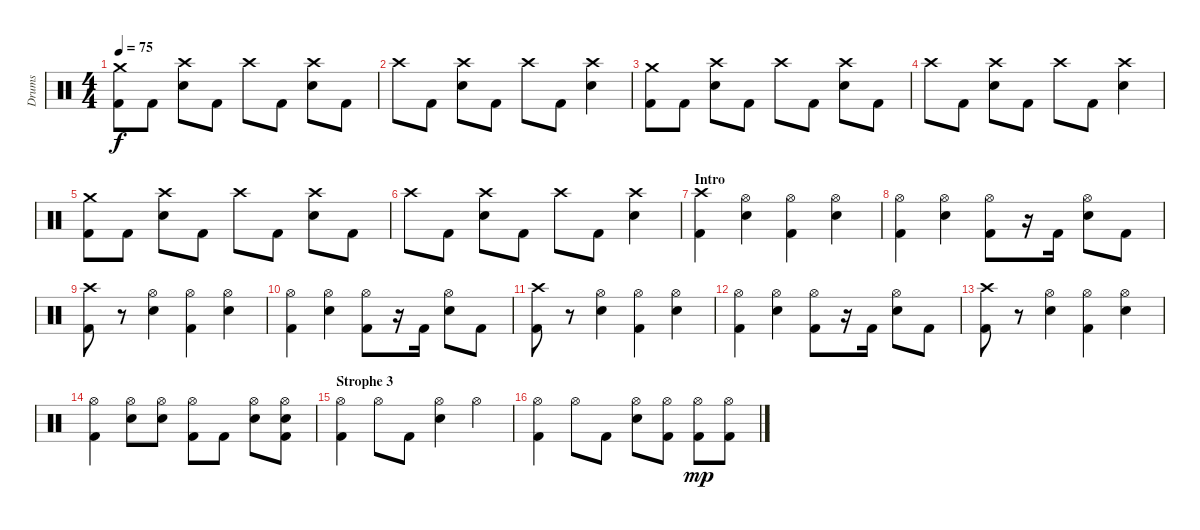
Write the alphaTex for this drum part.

\track ("Drums" "Drums") {instrument percussion}
\staff {score}
\articulation defaults
\ts (4 4)
\tempo 75
\clef neutral
\ks c
("Crash medium (hit)" "Kick (hit) 2").8{dy f} "Kick (hit) 2".8 ("Crash high (hit)" "Snare (hit) 2").8 "Kick (hit) 2".8 "Crash high (hit)".8 "Kick (hit) 2".8 ("Crash high (hit)" "Snare (hit) 2").8 "Kick (hit) 2".8 |
"Crash high (hit)".8 "Kick (hit) 2".8 ("Crash high (hit)" "Snare (hit) 2").8 "Kick (hit) 2".8 "Crash high (hit)".8 "Kick (hit) 2".8 ("Crash high (hit)" "Snare (hit) 2").4 |
("Crash medium (hit)" "Kick (hit) 2").8 "Kick (hit) 2".8 ("Crash high (hit)" "Snare (hit) 2").8 "Kick (hit) 2".8 "Crash high (hit)".8 "Kick (hit) 2".8 ("Crash high (hit)" "Snare (hit) 2").8 "Kick (hit) 2".8 |
"Crash high (hit)".8 "Kick (hit) 2".8 ("Crash high (hit)" "Snare (hit) 2").8 "Kick (hit) 2".8 "Crash high (hit)".8 "Kick (hit) 2".8 ("Crash high (hit)" "Snare (hit) 2").4 |
("Crash medium (hit)" "Kick (hit) 2").8 "Kick (hit) 2".8 ("Crash high (hit)" "Snare (hit) 2").8 "Kick (hit) 2".8 "Crash high (hit)".8 "Kick (hit) 2".8 ("Crash high (hit)" "Snare (hit) 2").8 "Kick (hit) 2".8 |
"Crash high (hit)".8 "Kick (hit) 2".8 ("Crash high (hit)" "Snare (hit) 2").8 "Kick (hit) 2".8 "Crash high (hit)".8 "Kick (hit) 2".8 ("Crash high (hit)" "Snare (hit) 2").4 |
\section ("" "Intro")
("Crash high (hit)" "Kick (hit) 2").4 ("Hi-Hat (open)" "Snare (hit) 2").4 ("Hi-Hat (open)" "Kick (hit) 2").4 ("Hi-Hat (open)" "Snare (hit) 2").4 |
("Hi-Hat (open)" "Kick (hit) 2").4 ("Hi-Hat (open)" "Snare (hit) 2").4 ("Hi-Hat (open)" "Kick (hit) 2").8 r.16 "Kick (hit) 2".16 ("Hi-Hat (open)" "Snare (hit) 2").8 "Kick (hit) 2".8 |
("Crash high (hit)" "Kick (hit) 2").8 r.8 ("Hi-Hat (open)" "Snare (hit) 2").4 ("Hi-Hat (open)" "Kick (hit) 2").4 ("Hi-Hat (open)" "Snare (hit) 2").4 |
("Hi-Hat (open)" "Kick (hit) 2").4 ("Hi-Hat (open)" "Snare (hit) 2").4 ("Hi-Hat (open)" "Kick (hit) 2").8 r.16 "Kick (hit) 2".16 ("Hi-Hat (open)" "Snare (hit) 2").8 "Kick (hit) 2".8 |
("Crash high (hit)" "Kick (hit) 2").8 r.8 ("Hi-Hat (open)" "Snare (hit) 2").4 ("Hi-Hat (open)" "Kick (hit) 2").4 ("Hi-Hat (open)" "Snare (hit) 2").4 |
("Hi-Hat (open)" "Kick (hit) 2").4 ("Hi-Hat (open)" "Snare (hit) 2").4 ("Hi-Hat (open)" "Kick (hit) 2").8 r.16 "Kick (hit) 2".16 ("Hi-Hat (open)" "Snare (hit) 2").8 "Kick (hit) 2".8 |
("Crash high (hit)" "Kick (hit) 2").8 r.8 ("Hi-Hat (open)" "Snare (hit) 2").4 ("Hi-Hat (open)" "Kick (hit) 2").4 ("Hi-Hat (open)" "Snare (hit) 2").4 |
("Hi-Hat (open)" "Kick (hit) 2").4 ("Hi-Hat (open)" "Snare (hit) 2").8 ("Hi-Hat (open)" "Snare (hit) 2").8 ("Hi-Hat (open)" "Kick (hit) 2").8 "Kick (hit) 2".8 ("Hi-Hat (open)" "Snare (hit) 2").8 ("Hi-Hat (open)" "Snare (hit) 2" "Kick (hit) 2").8 |
\section ("" "Strophe 3")
("Hi-Hat (open)" "Kick (hit) 2").4 "Hi-Hat (open)".8 "Kick (hit) 2".8 ("Hi-Hat (open)" "Snare (hit) 2").4 "Hi-Hat (open)".4 |
("Hi-Hat (open)" "Kick (hit) 2").4 "Hi-Hat (open)".8 "Kick (hit) 2".8 ("Hi-Hat (open)" "Snare (hit) 2").8 ("Hi-Hat (open)" "Kick (hit) 2").8 ("Hi-Hat (open)" "Kick (hit) 2").8{dy mp} ("Hi-Hat (open)" "Kick (hit) 2").8
